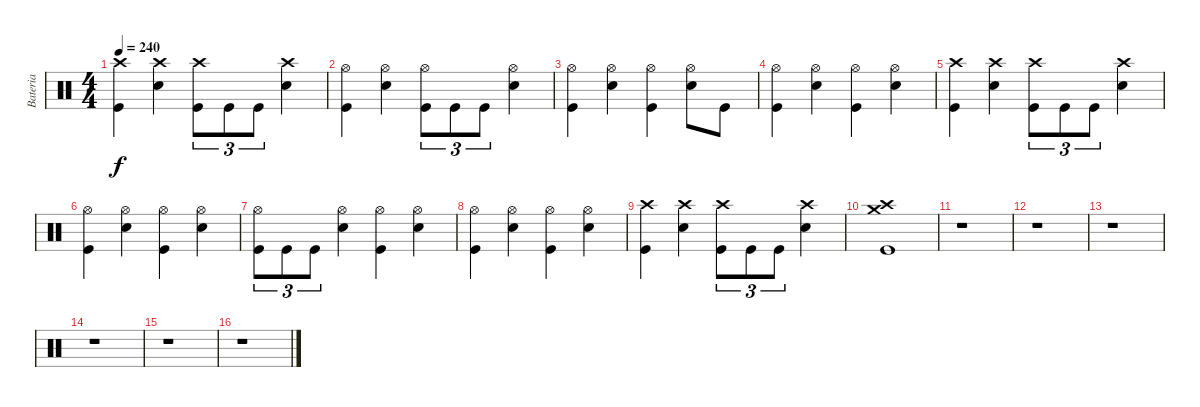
\track ("Bateria" "Bateria") {instrument percussion}
\staff {score}
\articulation defaults
\ts (4 4)
\tempo 240
\clef neutral
\ks c
("Kick (hit)" "Crash high (hit)").4{dy f} ("Electric Snare (hit)" "Crash high (hit)").4 ("Kick (hit)" "Crash high (hit)").8{tu (3 2)} "Kick (hit)".8{tu (3 2)} "Kick (hit)".8{tu (3 2)} ("Electric Snare (hit)" "Crash high (hit)").4 |
("Kick (hit)" "Hi-Hat (open)").4 ("Electric Snare (hit)" "Hi-Hat (open)").4 ("Kick (hit)" "Hi-Hat (open)").8{tu (3 2)} "Kick (hit)".8{tu (3 2)} "Kick (hit)".8{tu (3 2)} ("Electric Snare (hit)" "Hi-Hat (open)").4 |
("Kick (hit)" "Hi-Hat (open)").4 ("Electric Snare (hit)" "Hi-Hat (open)").4 ("Kick (hit)" "Hi-Hat (open)").4 ("Electric Snare (hit)" "Hi-Hat (open)").8 "Kick (hit)".8 |
("Kick (hit)" "Hi-Hat (open)").4 ("Electric Snare (hit)" "Hi-Hat (open)").4 ("Kick (hit)" "Hi-Hat (open)").4 ("Electric Snare (hit)" "Hi-Hat (open)").4 |
("Kick (hit)" "Crash high (hit)").4 ("Electric Snare (hit)" "Crash high (hit)").4 ("Kick (hit)" "Crash high (hit)").8{tu (3 2)} "Kick (hit)".8{tu (3 2)} "Kick (hit)".8{tu (3 2)} ("Electric Snare (hit)" "Crash high (hit)").4 |
("Kick (hit)" "Hi-Hat (open)").4 ("Electric Snare (hit)" "Hi-Hat (open)").4 ("Kick (hit)" "Hi-Hat (open)").4 ("Electric Snare (hit)" "Hi-Hat (open)").4 |
("Kick (hit)" "Hi-Hat (open)").8{tu (3 2)} "Kick (hit)".8{tu (3 2)} "Kick (hit)".8{tu (3 2)} ("Electric Snare (hit)" "Hi-Hat (open)").4 ("Kick (hit)" "Hi-Hat (open)").4 ("Electric Snare (hit)" "Hi-Hat (open)").4 |
("Kick (hit)" "Hi-Hat (open)").4 ("Electric Snare (hit)" "Hi-Hat (open)").4 ("Kick (hit)" "Hi-Hat (open)").4 ("Electric Snare (hit)" "Hi-Hat (open)").4 |
("Kick (hit)" "Crash high (hit)").4 ("Electric Snare (hit)" "Crash high (hit)").4 ("Kick (hit)" "Crash high (hit)").8{tu (3 2)} "Kick (hit)".8{tu (3 2)} "Kick (hit)".8{tu (3 2)} ("Electric Snare (hit)" "Crash high (hit)").4 |
("Kick (hit)" "Crash high (hit)" "Crash medium (hit)").1 |
r.1 |
r.1 |
r.1 |
r.1 |
r.1 |
r.1
